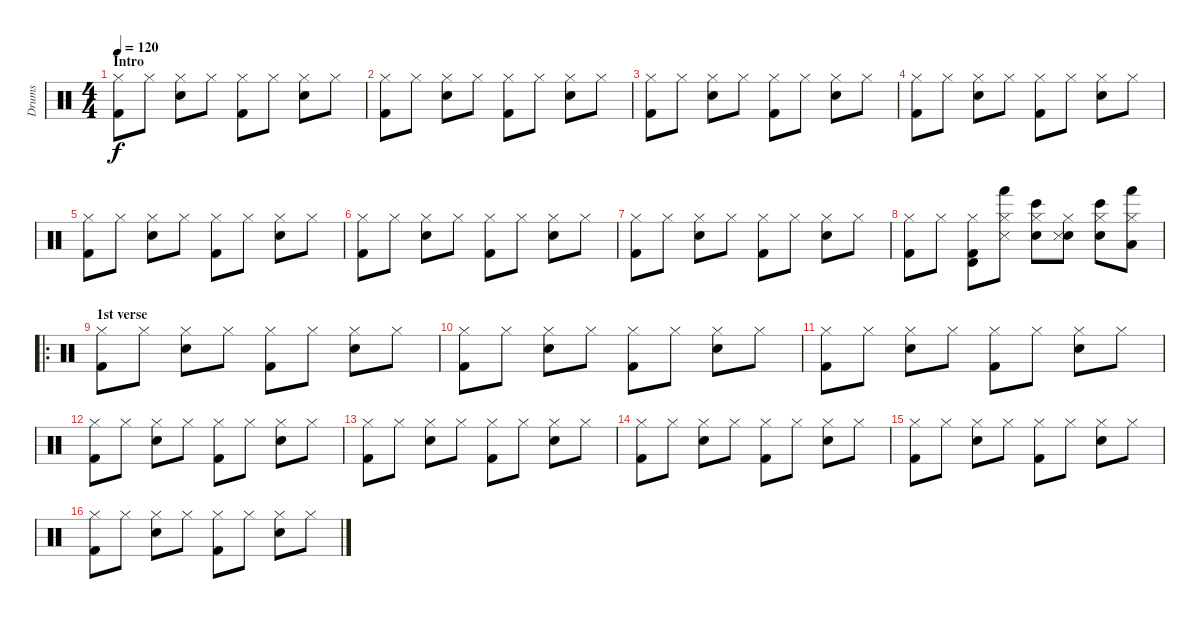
\track ("Drums" "Drums") {instrument percussion}
\staff {score}
\articulation defaults
\ts (4 4)
\section ("" "Intro")
\tempo 120
\clef neutral
\ks c
("Hi-Hat (closed)" "Kick (hit) 2").8{dy f} "Hi-Hat (closed)".8 ("Hi-Hat (closed)" "Snare (hit) 2").8 "Hi-Hat (closed)".8 ("Hi-Hat (closed)" "Kick (hit) 2").8 "Hi-Hat (closed)".8 ("Hi-Hat (closed)" "Snare (hit) 2").8 "Hi-Hat (closed)".8 |
("Hi-Hat (closed)" "Kick (hit) 2").8 "Hi-Hat (closed)".8 ("Hi-Hat (closed)" "Snare (hit) 2").8 "Hi-Hat (closed)".8 ("Hi-Hat (closed)" "Kick (hit) 2").8 "Hi-Hat (closed)".8 ("Hi-Hat (closed)" "Snare (hit) 2").8 "Hi-Hat (closed)".8 |
("Hi-Hat (closed)" "Kick (hit) 2").8 "Hi-Hat (closed)".8 ("Hi-Hat (closed)" "Snare (hit) 2").8 "Hi-Hat (closed)".8 ("Hi-Hat (closed)" "Kick (hit) 2").8 "Hi-Hat (closed)".8 ("Hi-Hat (closed)" "Snare (hit) 2").8 "Hi-Hat (closed)".8 |
("Hi-Hat (closed)" "Kick (hit) 2").8 "Hi-Hat (closed)".8 ("Hi-Hat (closed)" "Snare (hit) 2").8 "Hi-Hat (closed)".8 ("Hi-Hat (closed)" "Kick (hit) 2").8 "Hi-Hat (closed)".8 ("Hi-Hat (closed)" "Snare (hit) 2").8 "Hi-Hat (closed)".8 |
("Hi-Hat (closed)" "Kick (hit) 2").8 "Hi-Hat (closed)".8 ("Hi-Hat (closed)" "Snare (hit) 2").8 "Hi-Hat (closed)".8 ("Hi-Hat (closed)" "Kick (hit) 2").8 "Hi-Hat (closed)".8 ("Hi-Hat (closed)" "Snare (hit) 2").8 "Hi-Hat (closed)".8 |
("Hi-Hat (closed)" "Kick (hit) 2").8 "Hi-Hat (closed)".8 ("Hi-Hat (closed)" "Snare (hit) 2").8 "Hi-Hat (closed)".8 ("Hi-Hat (closed)" "Kick (hit) 2").8 "Hi-Hat (closed)".8 ("Hi-Hat (closed)" "Snare (hit) 2").8 "Hi-Hat (closed)".8 |
("Hi-Hat (closed)" "Kick (hit) 2").8 "Hi-Hat (closed)".8 ("Hi-Hat (closed)" "Snare (hit) 2").8 "Hi-Hat (closed)".8 ("Hi-Hat (closed)" "Kick (hit) 2").8 "Hi-Hat (closed)".8 ("Hi-Hat (closed)" "Snare (hit) 2").8 "Hi-Hat (closed)".8 |
("Hi-Hat (closed)" "Kick (hit) 2").8 "Hi-Hat (closed)".8 ("Kick (hit) 2" "Timbale high (hit)" "Hi-Hat (closed)").8 ("Snare (side stick) 3" "Hand (hit)" "Hi-Hat (closed)").8 ("Snare (hit) 2" "Bongo High (hit)" "Hi-Hat (closed)").8 ("Hand Clap (hit)" "Snare (side stick) 3" "Hi-Hat (closed)").8 ("Electric Snare (hit)" "Bongo High (hit)" "Hi-Hat (closed)").8 ("Low Floor Tom (hit)" "Hand (hit)" "Hi-Hat (closed)").8 |
\ro
\section ("" "1st verse")
("Hi-Hat (closed)" "Kick (hit) 2").8 "Hi-Hat (closed)".8 ("Hi-Hat (closed)" "Snare (hit) 2").8 "Hi-Hat (closed)".8 ("Hi-Hat (closed)" "Kick (hit) 2").8 "Hi-Hat (closed)".8 ("Hi-Hat (closed)" "Snare (hit) 2").8 "Hi-Hat (closed)".8 |
("Hi-Hat (closed)" "Kick (hit) 2").8 "Hi-Hat (closed)".8 ("Hi-Hat (closed)" "Snare (hit) 2").8 "Hi-Hat (closed)".8 ("Hi-Hat (closed)" "Kick (hit) 2").8 "Hi-Hat (closed)".8 ("Hi-Hat (closed)" "Snare (hit) 2").8 "Hi-Hat (closed)".8 |
("Hi-Hat (closed)" "Kick (hit) 2").8 "Hi-Hat (closed)".8 ("Hi-Hat (closed)" "Snare (hit) 2").8 "Hi-Hat (closed)".8 ("Hi-Hat (closed)" "Kick (hit) 2").8 "Hi-Hat (closed)".8 ("Hi-Hat (closed)" "Snare (hit) 2").8 "Hi-Hat (closed)".8 |
("Hi-Hat (closed)" "Kick (hit) 2").8 "Hi-Hat (closed)".8 ("Hi-Hat (closed)" "Snare (hit) 2").8 "Hi-Hat (closed)".8 ("Hi-Hat (closed)" "Kick (hit) 2").8 "Hi-Hat (closed)".8 ("Hi-Hat (closed)" "Snare (hit) 2").8 "Hi-Hat (closed)".8 |
("Hi-Hat (closed)" "Kick (hit) 2").8 "Hi-Hat (closed)".8 ("Hi-Hat (closed)" "Snare (hit) 2").8 "Hi-Hat (closed)".8 ("Hi-Hat (closed)" "Kick (hit) 2").8 "Hi-Hat (closed)".8 ("Hi-Hat (closed)" "Snare (hit) 2").8 "Hi-Hat (closed)".8 |
("Hi-Hat (closed)" "Kick (hit) 2").8 "Hi-Hat (closed)".8 ("Hi-Hat (closed)" "Snare (hit) 2").8 "Hi-Hat (closed)".8 ("Hi-Hat (closed)" "Kick (hit) 2").8 "Hi-Hat (closed)".8 ("Hi-Hat (closed)" "Snare (hit) 2").8 "Hi-Hat (closed)".8 |
("Hi-Hat (closed)" "Kick (hit) 2").8 "Hi-Hat (closed)".8 ("Hi-Hat (closed)" "Snare (hit) 2").8 "Hi-Hat (closed)".8 ("Hi-Hat (closed)" "Kick (hit) 2").8 "Hi-Hat (closed)".8 ("Hi-Hat (closed)" "Snare (hit) 2").8 "Hi-Hat (closed)".8 |
("Hi-Hat (closed)" "Kick (hit) 2").8 "Hi-Hat (closed)".8 ("Hi-Hat (closed)" "Snare (hit) 2").8 "Hi-Hat (closed)".8 ("Hi-Hat (closed)" "Kick (hit) 2").8 "Hi-Hat (closed)".8 ("Hi-Hat (closed)" "Snare (hit) 2").8 "Hi-Hat (closed)".8
